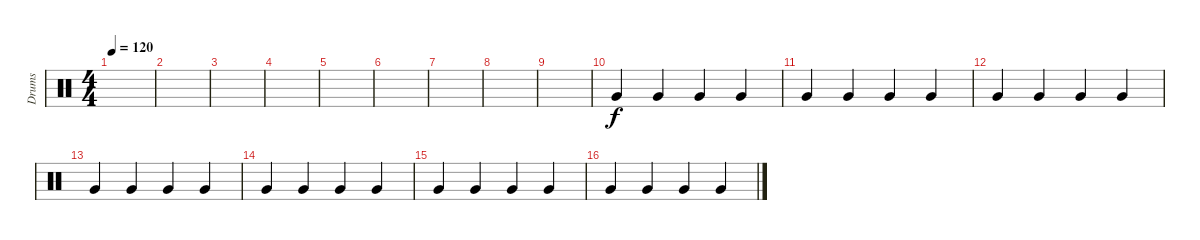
\track ("Drums" "Drums") {instrument percussion}
\staff {score}
\articulation defaults
\ts (4 4)
\tempo 120
\clef neutral
\ks c
|
|
|
|
|
|
|
|
|
"Very Low Tom (hit)".4 "Very Low Tom (hit)".4 "Very Low Tom (hit)".4 "Very Low Tom (hit)".4 |
"Very Low Tom (hit)".4 "Very Low Tom (hit)".4 "Very Low Tom (hit)".4 "Very Low Tom (hit)".4 |
"Very Low Tom (hit)".4 "Very Low Tom (hit)".4 "Very Low Tom (hit)".4 "Very Low Tom (hit)".4 |
"Very Low Tom (hit)".4 "Very Low Tom (hit)".4 "Very Low Tom (hit)".4 "Very Low Tom (hit)".4 |
"Very Low Tom (hit)".4 "Very Low Tom (hit)".4 "Very Low Tom (hit)".4 "Very Low Tom (hit)".4 |
"Very Low Tom (hit)".4 "Very Low Tom (hit)".4 "Very Low Tom (hit)".4 "Very Low Tom (hit)".4 |
"Very Low Tom (hit)".4 "Very Low Tom (hit)".4 "Very Low Tom (hit)".4 "Very Low Tom (hit)".4
